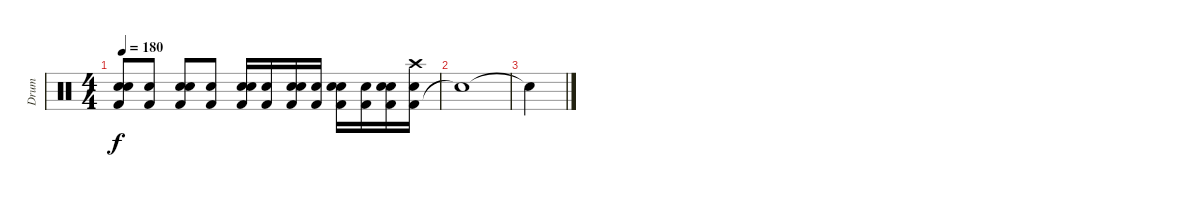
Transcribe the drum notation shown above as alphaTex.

\track ("Drum" "Drum") {instrument percussion}
\staff {score}
\articulation defaults
\ts (4 4)
\tempo 180
\clef neutral
\ks c
("Kick (hit) 2" "Electric Snare (hit)" "Snare (hit) 2").8{dy f} ("Kick (hit) 2" "Electric Snare (hit)").8 ("Kick (hit) 2" "Electric Snare (hit)" "Snare (hit) 2").8 ("Kick (hit) 2" "Electric Snare (hit)").8 ("Kick (hit) 2" "Electric Snare (hit)" "Snare (hit) 2").16 ("Kick (hit) 2" "Electric Snare (hit)").16 ("Kick (hit) 2" "Electric Snare (hit)" "Snare (hit) 2").16 ("Kick (hit) 2" "Electric Snare (hit)").16 ("Kick (hit) 2" "Electric Snare (hit)" "Snare (hit) 2").16 ("Kick (hit) 2" "Electric Snare (hit)").16 ("Kick (hit) 2" "Electric Snare (hit)" "Snare (hit) 2").16 ("Kick (hit) 2" "Electric Snare (hit)" "Crash high (hit)").16 |
"Snare (hit)"{t}.1 |
"Snare (hit)"{t}.4
